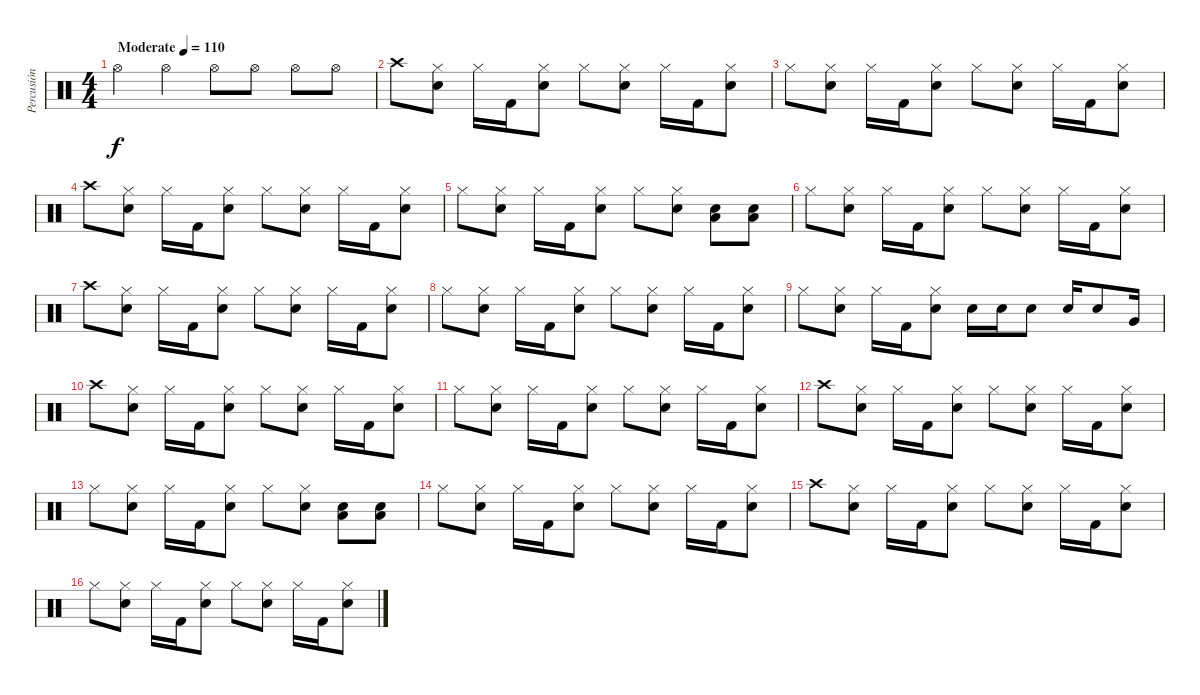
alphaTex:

\track ("Percusión" "Percusión") {instrument percussion}
\staff {score}
\articulation defaults
\ts (4 4)
\tempo (110 "Moderate")
\clef neutral
\ks c "Hi-Hat (open)".4{dy f} "Hi-Hat (open)".4 "Hi-Hat (open)".8 "Hi-Hat (open)".8 "Hi-Hat (open)".8 "Hi-Hat (open)".8
|
"Crash high (hit)".8 ("Hi-Hat (closed)" "Snare (hit) 2").8 "Hi-Hat (closed)".16 "Kick (hit) 2".16 ("Hi-Hat (closed)" "Snare (hit) 2").8 "Hi-Hat (closed)".8 ("Hi-Hat (closed)" "Snare (hit) 2").8 "Hi-Hat (closed)".16 "Kick (hit) 2".16 ("Hi-Hat (closed)" "Snare (hit) 2").8 |
"Hi-Hat (closed)".8 ("Hi-Hat (closed)" "Snare (hit) 2").8 "Hi-Hat (closed)".16 "Kick (hit) 2".16 ("Hi-Hat (closed)" "Snare (hit) 2").8 "Hi-Hat (closed)".8 ("Hi-Hat (closed)" "Snare (hit) 2").8 "Hi-Hat (closed)".16 "Kick (hit) 2".16 ("Hi-Hat (closed)" "Snare (hit) 2").8 |
"Crash high (hit)".8 ("Hi-Hat (closed)" "Snare (hit) 2").8 "Hi-Hat (closed)".16 "Kick (hit) 2".16 ("Hi-Hat (closed)" "Snare (hit) 2").8 "Hi-Hat (closed)".8 ("Hi-Hat (closed)" "Snare (hit) 2").8 "Hi-Hat (closed)".16 "Kick (hit) 2".16 ("Hi-Hat (closed)" "Snare (hit) 2").8 |
"Hi-Hat (closed)".8 ("Hi-Hat (closed)" "Snare (hit) 2").8 "Hi-Hat (closed)".16 "Kick (hit) 2".16 ("Hi-Hat (closed)" "Snare (hit) 2").8 "Hi-Hat (closed)".8 ("Hi-Hat (closed)" "Snare (hit) 2").8 ("Low Floor Tom (hit)" "Snare (hit) 2").8 ("Low Floor Tom (hit)" "Snare (hit) 2").8 |
"Hi-Hat (closed)".8 ("Hi-Hat (closed)" "Snare (hit) 2").8 "Hi-Hat (closed)".16 "Kick (hit) 2".16 ("Hi-Hat (closed)" "Snare (hit) 2").8 "Hi-Hat (closed)".8 ("Hi-Hat (closed)" "Snare (hit) 2").8 "Hi-Hat (closed)".16 "Kick (hit) 2".16 ("Hi-Hat (closed)" "Snare (hit) 2").8 |
"Crash high (hit)".8 ("Hi-Hat (closed)" "Snare (hit) 2").8 "Hi-Hat (closed)".16 "Kick (hit) 2".16 ("Hi-Hat (closed)" "Snare (hit) 2").8 "Hi-Hat (closed)".8 ("Hi-Hat (closed)" "Snare (hit) 2").8 "Hi-Hat (closed)".16 "Kick (hit) 2".16 ("Hi-Hat (closed)" "Snare (hit) 2").8 |
"Hi-Hat (closed)".8 ("Hi-Hat (closed)" "Snare (hit) 2").8 "Hi-Hat (closed)".16 "Kick (hit) 2".16 ("Hi-Hat (closed)" "Snare (hit) 2").8 "Hi-Hat (closed)".8 ("Hi-Hat (closed)" "Snare (hit) 2").8 "Hi-Hat (closed)".16 "Kick (hit) 2".16 ("Hi-Hat (closed)" "Snare (hit) 2").8 |
"Hi-Hat (closed)".8 ("Hi-Hat (closed)" "Snare (hit) 2").8 "Hi-Hat (closed)".16 "Kick (hit) 2".16 ("Hi-Hat (closed)" "Snare (hit) 2").8 "Snare (hit) 2".16 "Snare (hit) 2".16 "Snare (hit) 2".8 "Snare (hit) 2".16 "Snare (hit) 2".8 "Very Low Tom (hit)".16 |
"Crash high (hit)".8 ("Hi-Hat (closed)" "Snare (hit) 2").8 "Hi-Hat (closed)".16 "Kick (hit) 2".16 ("Hi-Hat (closed)" "Snare (hit) 2").8 "Hi-Hat (closed)".8 ("Hi-Hat (closed)" "Snare (hit) 2").8 "Hi-Hat (closed)".16 "Kick (hit) 2".16 ("Hi-Hat (closed)" "Snare (hit) 2").8 |
"Hi-Hat (closed)".8 ("Hi-Hat (closed)" "Snare (hit) 2").8 "Hi-Hat (closed)".16 "Kick (hit) 2".16 ("Hi-Hat (closed)" "Snare (hit) 2").8 "Hi-Hat (closed)".8 ("Hi-Hat (closed)" "Snare (hit) 2").8 "Hi-Hat (closed)".16 "Kick (hit) 2".16 ("Hi-Hat (closed)" "Snare (hit) 2").8 |
"Crash high (hit)".8 ("Hi-Hat (closed)" "Snare (hit) 2").8 "Hi-Hat (closed)".16 "Kick (hit) 2".16 ("Hi-Hat (closed)" "Snare (hit) 2").8 "Hi-Hat (closed)".8 ("Hi-Hat (closed)" "Snare (hit) 2").8 "Hi-Hat (closed)".16 "Kick (hit) 2".16 ("Hi-Hat (closed)" "Snare (hit) 2").8 |
"Hi-Hat (closed)".8 ("Hi-Hat (closed)" "Snare (hit) 2").8 "Hi-Hat (closed)".16 "Kick (hit) 2".16 ("Hi-Hat (closed)" "Snare (hit) 2").8 "Hi-Hat (closed)".8 ("Hi-Hat (closed)" "Snare (hit) 2").8 ("Low Floor Tom (hit)" "Snare (hit) 2").8 ("Low Floor Tom (hit)" "Snare (hit) 2").8 |
"Hi-Hat (closed)".8 ("Hi-Hat (closed)" "Snare (hit) 2").8 "Hi-Hat (closed)".16 "Kick (hit) 2".16 ("Hi-Hat (closed)" "Snare (hit) 2").8 "Hi-Hat (closed)".8 ("Hi-Hat (closed)" "Snare (hit) 2").8 "Hi-Hat (closed)".16 "Kick (hit) 2".16 ("Hi-Hat (closed)" "Snare (hit) 2").8 |
"Crash high (hit)".8 ("Hi-Hat (closed)" "Snare (hit) 2").8 "Hi-Hat (closed)".16 "Kick (hit) 2".16 ("Hi-Hat (closed)" "Snare (hit) 2").8 "Hi-Hat (closed)".8 ("Hi-Hat (closed)" "Snare (hit) 2").8 "Hi-Hat (closed)".16 "Kick (hit) 2".16 ("Hi-Hat (closed)" "Snare (hit) 2").8 |
"Hi-Hat (closed)".8 ("Hi-Hat (closed)" "Snare (hit) 2").8 "Hi-Hat (closed)".16 "Kick (hit) 2".16 ("Hi-Hat (closed)" "Snare (hit) 2").8 "Hi-Hat (closed)".8 ("Hi-Hat (closed)" "Snare (hit) 2").8 "Hi-Hat (closed)".16 "Kick (hit) 2".16 ("Hi-Hat (closed)" "Snare (hit) 2").8
